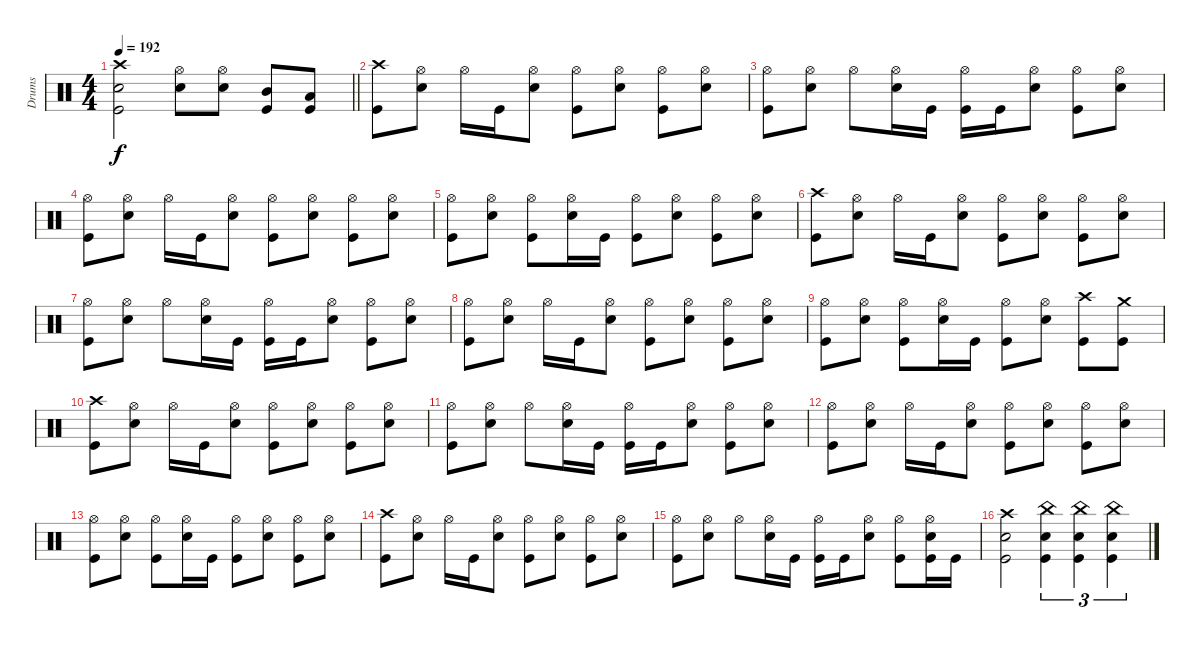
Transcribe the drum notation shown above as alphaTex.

\track ("Drums" "Drums") {instrument percussion}
\staff
\articulation defaults
\ts (4 4)
\tempo 192
\clef neutral
\barLineRight lightlight
\ks c
("Crash high (hit)" "Electric Snare (hit)" "Kick (hit)").2{dy f} ("Hi-Hat (open)" "Electric Snare (hit)").8 ("Hi-Hat (open)" "Electric Snare (hit)").8 ("Mid Tom (hit)" "Kick (hit)").8 ("Low Tom (hit)" "Kick (hit)").8 |
\section ("" "")
("Crash high (hit)" "Kick (hit)").8 ("Hi-Hat (open)" "Electric Snare (hit)").8 "Hi-Hat (open)".16 "Kick (hit)".16 ("Hi-Hat (open)" "Electric Snare (hit)").8 ("Hi-Hat (open)" "Kick (hit)").8 ("Hi-Hat (open)" "Electric Snare (hit)").8 ("Hi-Hat (open)" "Kick (hit)").8 ("Hi-Hat (open)" "Electric Snare (hit)").8 |
("Hi-Hat (open)" "Kick (hit)").8 ("Hi-Hat (open)" "Electric Snare (hit)").8 "Hi-Hat (open)".8 ("Hi-Hat (open)" "Electric Snare (hit)").16 "Kick (hit)".16 ("Hi-Hat (open)" "Kick (hit)").16 "Kick (hit)".16 ("Hi-Hat (open)" "Electric Snare (hit)").8 ("Hi-Hat (open)" "Kick (hit)").8 ("Hi-Hat (open)" "Electric Snare (hit)").8 |
("Hi-Hat (open)" "Kick (hit)").8 ("Hi-Hat (open)" "Electric Snare (hit)").8 "Hi-Hat (open)".16 "Kick (hit)".16 ("Hi-Hat (open)" "Electric Snare (hit)").8 ("Hi-Hat (open)" "Kick (hit)").8 ("Hi-Hat (open)" "Electric Snare (hit)").8 ("Hi-Hat (open)" "Kick (hit)").8 ("Hi-Hat (open)" "Electric Snare (hit)").8 |
("Hi-Hat (open)" "Kick (hit)").8 ("Hi-Hat (open)" "Electric Snare (hit)").8 ("Hi-Hat (open)" "Kick (hit)").8 ("Hi-Hat (open)" "Electric Snare (hit)").16 "Kick (hit)".16 ("Hi-Hat (open)" "Kick (hit)").8 ("Hi-Hat (open)" "Electric Snare (hit)").8 ("Hi-Hat (open)" "Kick (hit)").8 ("Hi-Hat (open)" "Electric Snare (hit)").8 |
("Crash high (hit)" "Kick (hit)").8 ("Hi-Hat (open)" "Electric Snare (hit)").8 "Hi-Hat (open)".16 "Kick (hit)".16 ("Hi-Hat (open)" "Electric Snare (hit)").8 ("Hi-Hat (open)" "Kick (hit)").8 ("Hi-Hat (open)" "Electric Snare (hit)").8 ("Hi-Hat (open)" "Kick (hit)").8 ("Hi-Hat (open)" "Electric Snare (hit)").8 |
("Hi-Hat (open)" "Kick (hit)").8 ("Hi-Hat (open)" "Electric Snare (hit)").8 "Hi-Hat (open)".8 ("Hi-Hat (open)" "Electric Snare (hit)").16 "Kick (hit)".16 ("Hi-Hat (open)" "Kick (hit)").16 "Kick (hit)".16 ("Hi-Hat (open)" "Electric Snare (hit)").8 ("Hi-Hat (open)" "Kick (hit)").8 ("Hi-Hat (open)" "Electric Snare (hit)").8 |
("Hi-Hat (open)" "Kick (hit)").8 ("Hi-Hat (open)" "Electric Snare (hit)").8 "Hi-Hat (open)".16 "Kick (hit)".16 ("Hi-Hat (open)" "Electric Snare (hit)").8 ("Hi-Hat (open)" "Kick (hit)").8 ("Hi-Hat (open)" "Electric Snare (hit)").8 ("Hi-Hat (open)" "Kick (hit)").8 ("Hi-Hat (open)" "Electric Snare (hit)").8 |
("Hi-Hat (open)" "Kick (hit)").8 ("Hi-Hat (open)" "Electric Snare (hit)").8 ("Hi-Hat (open)" "Kick (hit)").8 ("Hi-Hat (open)" "Electric Snare (hit)").16 "Kick (hit)".16 ("Hi-Hat (open)" "Kick (hit)").8 ("Hi-Hat (open)" "Electric Snare (hit)").8 ("Crash high (hit)" "Kick (hit)").8 ("Crash medium (hit)" "Kick (hit)").8 |
("Crash high (hit)" "Kick (hit)").8 ("Hi-Hat (open)" "Electric Snare (hit)").8 "Hi-Hat (open)".16 "Kick (hit)".16 ("Hi-Hat (open)" "Electric Snare (hit)").8 ("Hi-Hat (open)" "Kick (hit)").8 ("Hi-Hat (open)" "Electric Snare (hit)").8 ("Hi-Hat (open)" "Kick (hit)").8 ("Hi-Hat (open)" "Electric Snare (hit)").8 |
("Hi-Hat (open)" "Kick (hit)").8 ("Hi-Hat (open)" "Electric Snare (hit)").8 "Hi-Hat (open)".8 ("Hi-Hat (open)" "Electric Snare (hit)").16 "Kick (hit)".16 ("Hi-Hat (open)" "Kick (hit)").16 "Kick (hit)".16 ("Hi-Hat (open)" "Electric Snare (hit)").8 ("Hi-Hat (open)" "Kick (hit)").8 ("Hi-Hat (open)" "Electric Snare (hit)").8 |
("Hi-Hat (open)" "Kick (hit)").8 ("Hi-Hat (open)" "Electric Snare (hit)").8 "Hi-Hat (open)".16 "Kick (hit)".16 ("Hi-Hat (open)" "Electric Snare (hit)").8 ("Hi-Hat (open)" "Kick (hit)").8 ("Hi-Hat (open)" "Electric Snare (hit)").8 ("Hi-Hat (open)" "Kick (hit)").8 ("Hi-Hat (open)" "Electric Snare (hit)").8 |
("Hi-Hat (open)" "Kick (hit)").8 ("Hi-Hat (open)" "Electric Snare (hit)").8 ("Hi-Hat (open)" "Kick (hit)").8 ("Hi-Hat (open)" "Electric Snare (hit)").16 "Kick (hit)".16 ("Hi-Hat (open)" "Kick (hit)").8 ("Hi-Hat (open)" "Electric Snare (hit)").8 ("Hi-Hat (open)" "Kick (hit)").8 ("Hi-Hat (open)" "Electric Snare (hit)").8 |
("Crash high (hit)" "Kick (hit)").8 ("Hi-Hat (open)" "Electric Snare (hit)").8 "Hi-Hat (open)".16 "Kick (hit)".16 ("Hi-Hat (open)" "Electric Snare (hit)").8 ("Hi-Hat (open)" "Kick (hit)").8 ("Hi-Hat (open)" "Electric Snare (hit)").8 ("Hi-Hat (open)" "Kick (hit)").8 ("Hi-Hat (open)" "Electric Snare (hit)").8 |
("Hi-Hat (open)" "Kick (hit)").8 ("Hi-Hat (open)" "Electric Snare (hit)").8 "Hi-Hat (open)".8 ("Hi-Hat (open)" "Electric Snare (hit)").16 "Kick (hit)".16 ("Hi-Hat (open)" "Kick (hit)").16 "Kick (hit)".16 ("Hi-Hat (open)" "Electric Snare (hit)").8 ("Hi-Hat (open)" "Kick (hit)").8 ("Hi-Hat (open)" "Electric Snare (hit)" "Kick (hit)").16 "Kick (hit)".16 |
("Crash high (hit)" "Electric Snare (hit)" "Kick (hit)").2 ("China (hit)" "Electric Snare (hit)" "Kick (hit)").4{tu (3 2)} ("China (hit)" "Electric Snare (hit)" "Kick (hit)").4{tu (3 2)} ("China (hit)" "Electric Snare (hit)" "Kick (hit)").4{tu (3 2)}
